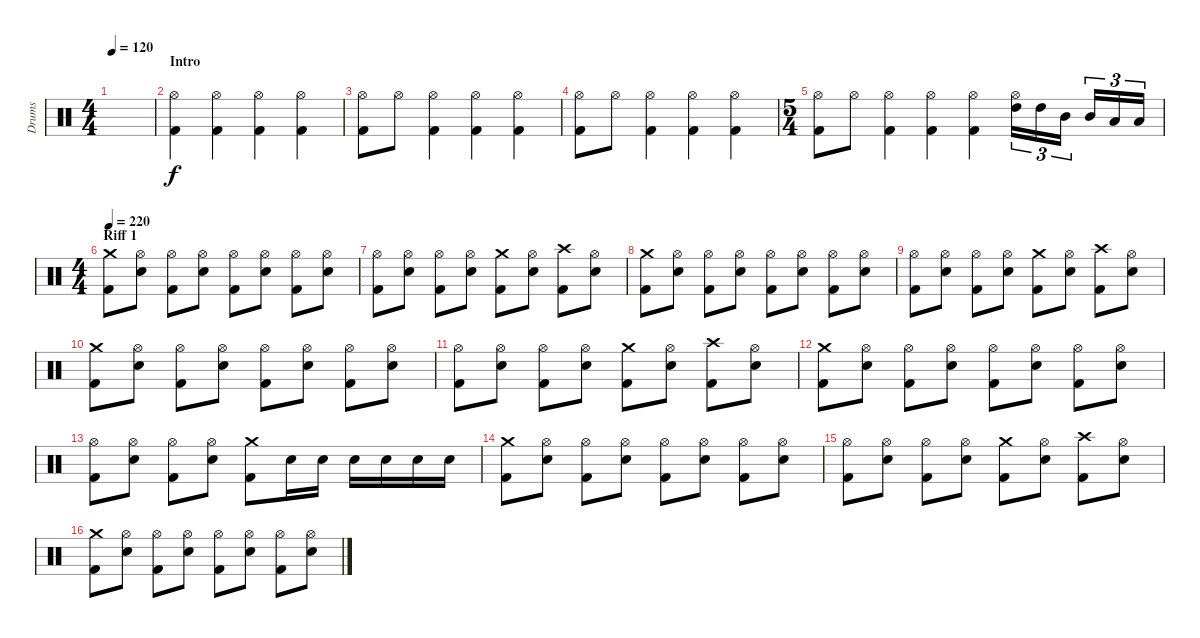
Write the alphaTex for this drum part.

\track ("Drums" "Drums") {instrument percussion}
\staff {score}
\articulation defaults
\ts (4 4)
\tempo 120
\clef neutral
\ks c
|
\section ("" "Intro")
("Hi-Hat (open)" "Kick (hit) 2").4 ("Hi-Hat (open)" "Kick (hit) 2").4 ("Hi-Hat (open)" "Kick (hit) 2").4 ("Hi-Hat (open)" "Kick (hit) 2").4 |
("Hi-Hat (open)" "Kick (hit) 2").8 "Hi-Hat (open)".8 ("Hi-Hat (open)" "Kick (hit) 2").4 ("Hi-Hat (open)" "Kick (hit) 2").4 ("Hi-Hat (open)" "Kick (hit) 2").4 |
("Hi-Hat (open)" "Kick (hit) 2").8 "Hi-Hat (open)".8 ("Hi-Hat (open)" "Kick (hit) 2").4 ("Hi-Hat (open)" "Kick (hit) 2").4 ("Hi-Hat (open)" "Kick (hit) 2").4 |
\ts (5 4)
("Hi-Hat (open)" "Kick (hit) 2").8 "Hi-Hat (open)".8 ("Hi-Hat (open)" "Kick (hit) 2").4 ("Hi-Hat (open)" "Kick (hit) 2").4 ("Hi-Hat (open)" "Kick (hit) 2").4 ("Hi-Hat (open)" "High Tom (hit)").16{tu (3 2)} "High Tom (hit)".16{tu (3 2)} "Mid Tom (hit)".16{tu (3 2)} "Mid Tom (hit)".16{tu (3 2)} "Low Tom (hit)".16{tu (3 2)} "Low Tom (hit)".16{tu (3 2)} |
\ts (4 4)
\section ("" "Riff 1")
\tempo 220
("Crash medium (hit)" "Kick (hit) 2").8 ("Hi-Hat (open)" "Electric Snare (hit)").8 ("Hi-Hat (open)" "Kick (hit) 2").8 ("Hi-Hat (open)" "Electric Snare (hit)").8 ("Hi-Hat (open)" "Kick (hit) 2").8 ("Hi-Hat (open)" "Electric Snare (hit)").8 ("Hi-Hat (open)" "Kick (hit) 2").8 ("Hi-Hat (open)" "Electric Snare (hit)").8 |
("Hi-Hat (open)" "Kick (hit) 2").8 ("Hi-Hat (open)" "Electric Snare (hit)").8 ("Hi-Hat (open)" "Kick (hit) 2").8 ("Hi-Hat (open)" "Electric Snare (hit)").8 ("Crash medium (hit)" "Kick (hit) 2").8 ("Hi-Hat (open)" "Electric Snare (hit)").8 ("Crash high (hit)" "Kick (hit) 2").8 ("Hi-Hat (open)" "Electric Snare (hit)").8 |
("Crash medium (hit)" "Kick (hit) 2").8 ("Hi-Hat (open)" "Electric Snare (hit)").8 ("Hi-Hat (open)" "Kick (hit) 2").8 ("Hi-Hat (open)" "Electric Snare (hit)").8 ("Hi-Hat (open)" "Kick (hit) 2").8 ("Hi-Hat (open)" "Electric Snare (hit)").8 ("Hi-Hat (open)" "Kick (hit) 2").8 ("Hi-Hat (open)" "Electric Snare (hit)").8 |
("Hi-Hat (open)" "Kick (hit) 2").8 ("Hi-Hat (open)" "Electric Snare (hit)").8 ("Hi-Hat (open)" "Kick (hit) 2").8 ("Hi-Hat (open)" "Electric Snare (hit)").8 ("Crash medium (hit)" "Kick (hit) 2").8 ("Hi-Hat (open)" "Electric Snare (hit)").8 ("Crash high (hit)" "Kick (hit) 2").8 ("Hi-Hat (open)" "Electric Snare (hit)").8 |
("Crash medium (hit)" "Kick (hit) 2").8 ("Hi-Hat (open)" "Electric Snare (hit)").8 ("Hi-Hat (open)" "Kick (hit) 2").8 ("Hi-Hat (open)" "Electric Snare (hit)").8 ("Hi-Hat (open)" "Kick (hit) 2").8 ("Hi-Hat (open)" "Electric Snare (hit)").8 ("Hi-Hat (open)" "Kick (hit) 2").8 ("Hi-Hat (open)" "Electric Snare (hit)").8 |
("Hi-Hat (open)" "Kick (hit) 2").8 ("Hi-Hat (open)" "Electric Snare (hit)").8 ("Hi-Hat (open)" "Kick (hit) 2").8 ("Hi-Hat (open)" "Electric Snare (hit)").8 ("Crash medium (hit)" "Kick (hit) 2").8 ("Hi-Hat (open)" "Electric Snare (hit)").8 ("Crash high (hit)" "Kick (hit) 2").8 ("Hi-Hat (open)" "Electric Snare (hit)").8 |
("Crash medium (hit)" "Kick (hit) 2").8 ("Hi-Hat (open)" "Electric Snare (hit)").8 ("Hi-Hat (open)" "Kick (hit) 2").8 ("Hi-Hat (open)" "Electric Snare (hit)").8 ("Hi-Hat (open)" "Kick (hit) 2").8 ("Hi-Hat (open)" "Electric Snare (hit)").8 ("Hi-Hat (open)" "Kick (hit) 2").8 ("Hi-Hat (open)" "Electric Snare (hit)").8 |
("Hi-Hat (open)" "Kick (hit) 2").8 ("Hi-Hat (open)" "Electric Snare (hit)").8 ("Hi-Hat (open)" "Kick (hit) 2").8 ("Hi-Hat (open)" "Electric Snare (hit)").8 ("Crash medium (hit)" "Kick (hit) 2").8 "Electric Snare (hit)".16 "Electric Snare (hit)".16 "Electric Snare (hit)".16 "Electric Snare (hit)".16 "Electric Snare (hit)".16 "Electric Snare (hit)".16 |
("Crash medium (hit)" "Kick (hit) 2").8 ("Hi-Hat (open)" "Electric Snare (hit)").8 ("Hi-Hat (open)" "Kick (hit) 2").8 ("Hi-Hat (open)" "Electric Snare (hit)").8 ("Hi-Hat (open)" "Kick (hit) 2").8 ("Hi-Hat (open)" "Electric Snare (hit)").8 ("Hi-Hat (open)" "Kick (hit) 2").8 ("Hi-Hat (open)" "Electric Snare (hit)").8 |
("Hi-Hat (open)" "Kick (hit) 2").8 ("Hi-Hat (open)" "Electric Snare (hit)").8 ("Hi-Hat (open)" "Kick (hit) 2").8 ("Hi-Hat (open)" "Electric Snare (hit)").8 ("Crash medium (hit)" "Kick (hit) 2").8 ("Hi-Hat (open)" "Electric Snare (hit)").8 ("Crash high (hit)" "Kick (hit) 2").8 ("Hi-Hat (open)" "Electric Snare (hit)").8 |
("Crash medium (hit)" "Kick (hit) 2").8 ("Hi-Hat (open)" "Electric Snare (hit)").8 ("Hi-Hat (open)" "Kick (hit) 2").8 ("Hi-Hat (open)" "Electric Snare (hit)").8 ("Hi-Hat (open)" "Kick (hit) 2").8 ("Hi-Hat (open)" "Electric Snare (hit)").8 ("Hi-Hat (open)" "Kick (hit) 2").8 ("Hi-Hat (open)" "Electric Snare (hit)").8
